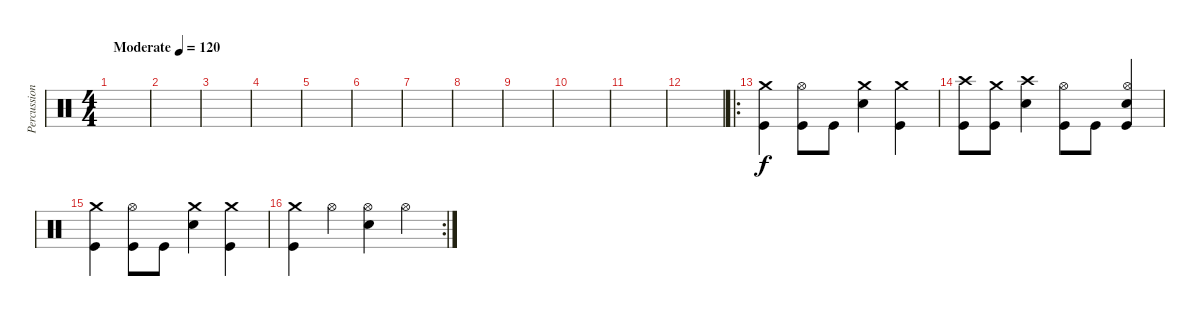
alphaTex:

\track ("Percussion" "Percussion") {instrument percussion}
\staff {score}
\articulation defaults
\ts (4 4)
\tempo (120 "Moderate")
\clef neutral
\ks c
|
|
|
|
|
|
|
|
|
|
|
|
\ro
("Crash medium (hit)" "Kick (hit)").4 ("Hi-Hat (open)" "Kick (hit)").8 "Kick (hit)".8 ("Crash medium (hit)" "Snare (hit) 2").4 ("Crash medium (hit)" "Kick (hit)").4 |
("Crash high (hit)" "Kick (hit)").8 ("Crash medium (hit)" "Kick (hit)").8 ("Crash high (hit)" "Snare (hit) 2").4 ("Hi-Hat (open)" "Kick (hit)").8 "Kick (hit)".8 ("Hi-Hat (open)" "Snare (hit) 2" "Kick (hit)").4 |
("Crash medium (hit)" "Kick (hit)").4 ("Hi-Hat (open)" "Kick (hit)").8 "Kick (hit)".8 ("Crash medium (hit)" "Snare (hit) 2").4 ("Crash medium (hit)" "Kick (hit)").4 |
\rc 2
("Crash medium (hit)" "Kick (hit)").4 "Hi-Hat (open)".4 ("Hi-Hat (open)" "Snare (hit) 2").4 "Hi-Hat (open)".4
